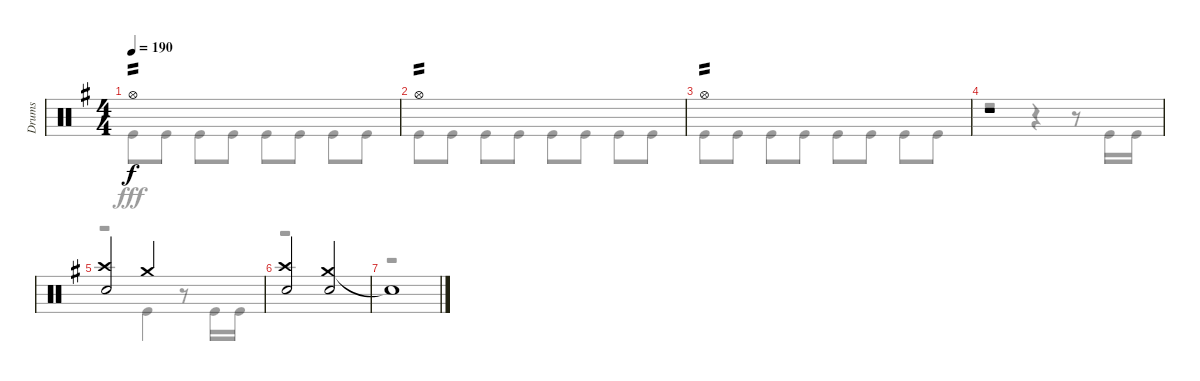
\track ("Drums" "Drums") {instrument percussion}
\staff {score}
\articulation defaults
\voice
\ts (4 4)
\tempo 190
\clef neutral
\ks g "Hi-Hat (open)".1{tp 2 dy f}
|
"Hi-Hat (open)".1{tp 2} |
"Hi-Hat (open)".1{tp 2} |
r.1 |
("Crash high (hit)" "Snare (hit) 2").2 "Crash medium (hit)".2 |
("Crash high (hit)" "Snare (hit) 2").2 ("Crash medium (hit)" "Snare (hit) 2").2 |
"Snare (hit)"{t}.1
\voice
\clef neutral
\ottava regular
\simile none
\ks g "Kick (hit)".8{dy fff} "Kick (hit)".8 "Kick (hit)".8 "Kick (hit)".8 "Kick (hit)".8 "Kick (hit)".8 "Kick (hit)".8 "Kick (hit)".8
|
"Kick (hit)".8 "Kick (hit)".8 "Kick (hit)".8 "Kick (hit)".8 "Kick (hit)".8 "Kick (hit)".8 "Kick (hit)".8 "Kick (hit)".8 |
"Kick (hit)".8 "Kick (hit)".8 "Kick (hit)".8 "Kick (hit)".8 "Kick (hit)".8 "Kick (hit)".8 "Kick (hit)".8 "Kick (hit)".8 |
r.2 r.4 r.8 "Kick (hit)".16 "Kick (hit)".16 |
r.2 "Kick (hit)".4 r.8 "Kick (hit)".16 "Kick (hit)".16 |
r.1 |
r.1
